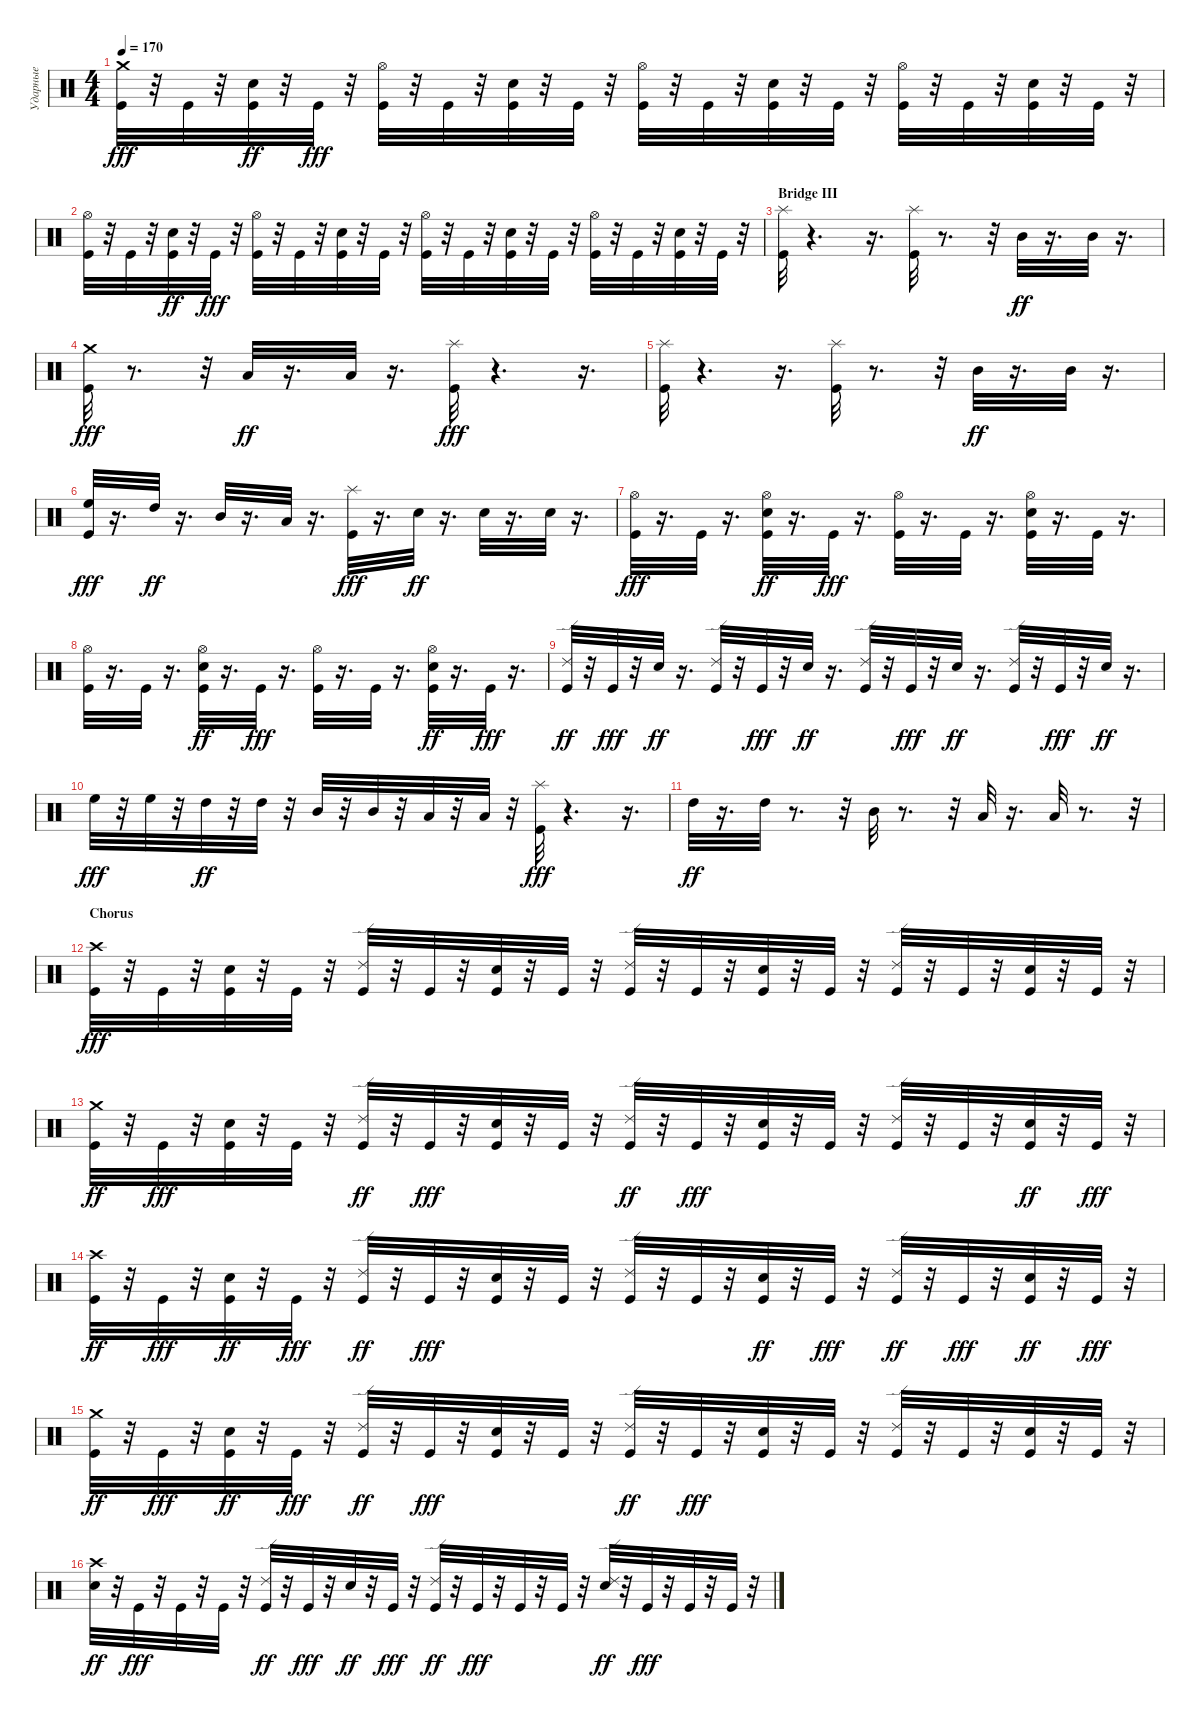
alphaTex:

\track ("Ударные" "Ударные") {instrument percussion}
\staff {score}
\articulation defaults
\ts (4 4)
\tempo 170
\clef neutral
\ks c
("Crash medium (hit)" "Kick (hit)").32{dy fff} r.32 "Kick (hit)".32 r.32 ("Kick (hit)" "Snare (hit) 2").32{dy ff} r.32 "Kick (hit)".32{dy fff} r.32 ("Hi-Hat (open)" "Kick (hit)").32 r.32 "Kick (hit)".32 r.32 ("Snare (hit) 2" "Kick (hit)").32 r.32 "Kick (hit)".32 r.32 ("Hi-Hat (open)" "Kick (hit)").32 r.32 "Kick (hit)".32 r.32 ("Snare (hit) 2" "Kick (hit)").32 r.32 "Kick (hit)".32 r.32 ("Hi-Hat (open)" "Kick (hit)").32 r.32 "Kick (hit)".32 r.32 ("Snare (hit) 2" "Kick (hit)").32 r.32 "Kick (hit)".32 r.32 |
("Hi-Hat (open)" "Kick (hit)").32 r.32 "Kick (hit)".32 r.32 ("Kick (hit)" "Snare (hit) 2").32{dy ff} r.32 "Kick (hit)".32{dy fff} r.32 ("Hi-Hat (open)" "Kick (hit)").32 r.32 "Kick (hit)".32 r.32 ("Snare (hit) 2" "Kick (hit)").32 r.32 "Kick (hit)".32 r.32 ("Hi-Hat (open)" "Kick (hit)").32 r.32 "Kick (hit)".32 r.32 ("Snare (hit) 2" "Kick (hit)").32 r.32 "Kick (hit)".32 r.32 ("Hi-Hat (open)" "Kick (hit)").32 r.32 "Kick (hit)".32 r.32 ("Snare (hit) 2" "Kick (hit)").32 r.32 "Kick (hit)".32 r.32 |
\section ("" "Bridge III")
("Splash (hit)" "Kick (hit)").32 r.4{d} r.16{d} ("Splash (hit)" "Kick (hit)").32 r.8{d} r.32 "Mid Tom (hit)".32{dy ff} r.16{d} "Mid Tom (hit)".32 r.16{d} |
("Crash medium (hit)" "Kick (hit)").32{dy fff} r.8{d} r.32 "Low Tom (hit)".32{dy ff} r.16{d} "Low Tom (hit)".32 r.16{d} ("Splash (hit)" "Kick (hit)").32{dy fff} r.4{d} r.16{d} |
("Splash (hit)" "Kick (hit)").32 r.4{d} r.16{d} ("Splash (hit)" "Kick (hit)").32 r.8{d} r.32 "Mid Tom (hit)".32{dy ff} r.16{d} "Mid Tom (hit)".32 r.16{d} |
("Kick (hit)" "High Floor Tom (hit)").32{dy fff} r.16{d} "High Tom (hit)".32{dy ff} r.16{d} "Mid Tom (hit)".32 r.16{d} "Low Tom (hit)".32 r.16{d} ("Splash (hit)" "Kick (hit)").32{dy fff} r.16{d} "Snare (hit) 2".32{dy ff} r.16{d} "Snare (hit) 2".32 r.16{d} "Snare (hit) 2".32 r.16{d} |
("Hi-Hat (open)" "Kick (hit)").32{dy fff} r.16{d} "Kick (hit)".32 r.16{d} ("Kick (hit)" "Snare (hit) 2" "Hi-Hat (open)").32{dy ff} r.16{d} "Kick (hit)".32{dy fff} r.16{d} ("Hi-Hat (open)" "Kick (hit)").32 r.16{d} "Kick (hit)".32 r.16{d} ("Hi-Hat (open)" "Snare (hit) 2" "Kick (hit)").32 r.16{d} "Kick (hit)".32 r.16{d} |
("Kick (hit)" "Hi-Hat (open)").32 r.16{d} "Kick (hit)".32 r.16{d} ("Kick (hit)" "Hi-Hat (open)" "Snare (hit) 2").32{dy ff} r.16{d} "Kick (hit)".32{dy fff} r.16{d} ("Hi-Hat (open)" "Kick (hit)").32 r.16{d} "Kick (hit)".32 r.16{d} ("Kick (hit)" "Hi-Hat (open)" "Snare (hit) 2").32{dy ff} r.16{d} "Kick (hit)".32{dy fff} r.16{d} |
("Kick (hit)" "Ride (edge) 2").32{dy ff} r.32 "Kick (hit)".32{dy fff} r.32 "Snare (hit) 2".32{dy ff} r.16{d} ("Kick (hit)" "Ride (edge) 2").32 r.32 "Kick (hit)".32{dy fff} r.32 "Snare (hit) 2".32{dy ff} r.16{d} ("Kick (hit)" "Ride (edge) 2").32 r.32 "Kick (hit)".32{dy fff} r.32 "Snare (hit) 2".32{dy ff} r.16{d} ("Kick (hit)" "Ride (edge) 2").32 r.32 "Kick (hit)".32{dy fff} r.32 "Snare (hit) 2".32{dy ff} r.16{d} |
"High Floor Tom (hit)".32{dy fff} r.32 "High Floor Tom (hit)".32 r.32 "High Tom (hit)".32{dy ff} r.32 "High Tom (hit)".32 r.32 "Mid Tom (hit)".32 r.32 "Mid Tom (hit)".32 r.32 "Low Tom (hit)".32 r.32 "Low Tom (hit)".32 r.32 ("Splash (hit)" "Kick (hit)").32{dy fff} r.4{d} r.16{d} |
"High Tom (hit)".32{dy ff} r.16{d} "High Tom (hit)".32 r.8{d} r.32 "Mid Tom (hit)".32 r.8{d} r.32 "Low Tom (hit)".32 r.16{d} "Low Tom (hit)".32 r.8{d} r.32 |
\section ("" "Chorus")
("Crash high (hit)" "Kick (hit)").32{dy fff} r.32 "Kick (hit)".32 r.32 ("Snare (hit) 2" "Kick (hit)").32 r.32 "Kick (hit)".32 r.32 ("Ride (edge) 2" "Kick (hit)").32 r.32 "Kick (hit)".32 r.32 ("Snare (hit) 2" "Kick (hit)").32 r.32 "Kick (hit)".32 r.32 ("Ride (edge) 2" "Kick (hit)").32 r.32 "Kick (hit)".32 r.32 ("Snare (hit) 2" "Kick (hit)").32 r.32 "Kick (hit)".32 r.32 ("Ride (edge) 2" "Kick (hit)").32 r.32 "Kick (hit)".32 r.32 ("Snare (hit) 2" "Kick (hit)").32 r.32 "Kick (hit)".32 r.32 |
("Kick (hit)" "Crash medium (hit)").32{dy ff} r.32 "Kick (hit)".32{dy fff} r.32 ("Snare (hit) 2" "Kick (hit)").32 r.32 "Kick (hit)".32 r.32 ("Kick (hit)" "Ride (edge) 2").32{dy ff} r.32 "Kick (hit)".32{dy fff} r.32 ("Snare (hit) 2" "Kick (hit)").32 r.32 "Kick (hit)".32 r.32 ("Kick (hit)" "Ride (edge) 2").32{dy ff} r.32 "Kick (hit)".32{dy fff} r.32 ("Snare (hit) 2" "Kick (hit)").32 r.32 "Kick (hit)".32 r.32 ("Ride (edge) 2" "Kick (hit)").32 r.32 "Kick (hit)".32 r.32 ("Kick (hit)" "Snare (hit) 2").32{dy ff} r.32 "Kick (hit)".32{dy fff} r.32 |
("Kick (hit)" "Crash high (hit)").32{dy ff} r.32 "Kick (hit)".32{dy fff} r.32 ("Kick (hit)" "Snare (hit) 2").32{dy ff} r.32 "Kick (hit)".32{dy fff} r.32 ("Kick (hit)" "Ride (edge) 2").32{dy ff} r.32 "Kick (hit)".32{dy fff} r.32 ("Snare (hit) 2" "Kick (hit)").32 r.32 "Kick (hit)".32 r.32 ("Ride (edge) 2" "Kick (hit)").32 r.32 "Kick (hit)".32 r.32 ("Kick (hit)" "Snare (hit) 2").32{dy ff} r.32 "Kick (hit)".32{dy fff} r.32 ("Kick (hit)" "Ride (edge) 2").32{dy ff} r.32 "Kick (hit)".32{dy fff} r.32 ("Kick (hit)" "Snare (hit) 2").32{dy ff} r.32 "Kick (hit)".32{dy fff} r.32 |
("Kick (hit)" "Crash medium (hit)").32{dy ff} r.32 "Kick (hit)".32{dy fff} r.32 ("Kick (hit)" "Snare (hit) 2").32{dy ff} r.32 "Kick (hit)".32{dy fff} r.32 ("Kick (hit)" "Ride (edge) 2").32{dy ff} r.32 "Kick (hit)".32{dy fff} r.32 ("Snare (hit) 2" "Kick (hit)").32 r.32 "Kick (hit)".32 r.32 ("Kick (hit)" "Ride (edge) 2").32{dy ff} r.32 "Kick (hit)".32{dy fff} r.32 ("Snare (hit) 2" "Kick (hit)").32 r.32 "Kick (hit)".32 r.32 ("Ride (edge) 2" "Kick (hit)").32 r.32 "Kick (hit)".32 r.32 ("Snare (hit) 2" "Kick (hit)").32 r.32 "Kick (hit)".32 r.32 |
("Crash high (hit)" "Snare (hit) 2").32{dy ff} r.32 "Kick (hit)".32{dy fff} r.32 "Kick (hit)".32 r.32 "Kick (hit)".32 r.32 ("Kick (hit)" "Ride (edge) 2").32{dy ff} r.32 "Kick (hit)".32{dy fff} r.32 "Snare (hit) 2".32{dy ff} r.32 "Kick (hit)".32{dy fff} r.32 ("Kick (hit)" "Ride (edge) 2").32{dy ff} r.32 "Kick (hit)".32{dy fff} r.32 "Kick (hit)".32 r.32 "Kick (hit)".32 r.32 ("Ride (edge) 2" "Snare (hit) 2").32{dy ff} r.32 "Kick (hit)".32{dy fff} r.32 "Kick (hit)".32 r.32 "Kick (hit)".32 r.32
